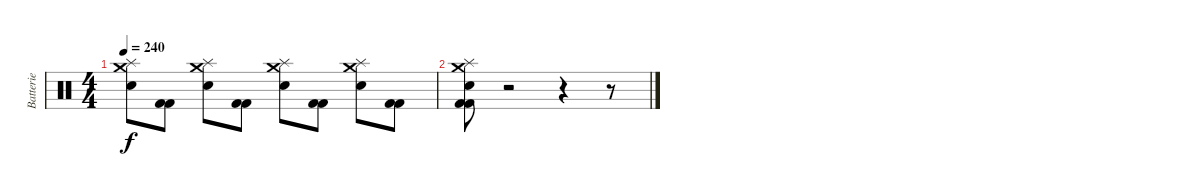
\track ("Batterie" "Batterie") {instrument percussion}
\staff {score}
\articulation defaults
\ts (4 4)
\tempo 240
\clef neutral
\ks c
("Splash (hit)" "Crash medium (hit)" "Snare (hit) 2").8{dy f} ("Kick (hit) 2" "Kick (hit) 2").8 ("Splash (hit)" "Crash medium (hit)" "Snare (hit) 2").8 ("Kick (hit) 2" "Kick (hit) 2").8 ("Splash (hit)" "Crash medium (hit)" "Snare (hit) 2").8 ("Kick (hit) 2" "Kick (hit) 2").8 ("Splash (hit)" "Crash medium (hit)" "Snare (hit) 2").8 ("Kick (hit) 2" "Kick (hit) 2").8 |
("Splash (hit)" "Crash medium (hit)" "Snare (hit) 2" "Kick (hit) 2" "Kick (hit) 2").8 r.2 r.4 r.8
